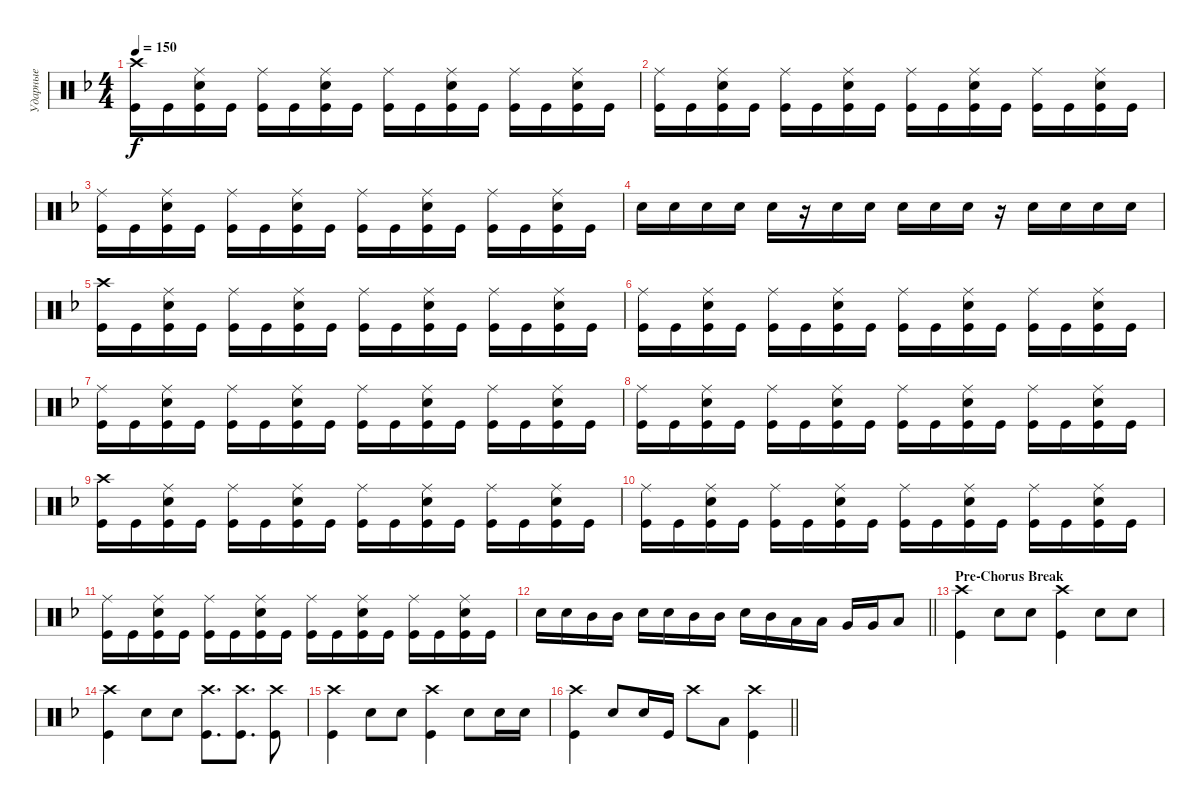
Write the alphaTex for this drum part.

\track ("Ударные" "Ударные") {instrument percussion}
\staff {score}
\articulation defaults
\ts (4 4)
\tempo 150
\clef neutral
\ks dminor
("Kick (hit)" "Crash high (hit)").16{dy f} "Kick (hit)".16 ("Kick (hit)" "Snare (hit) 2" "Ride (middle)").16 "Kick (hit)".16 ("Kick (hit)" "Ride (middle)").16 "Kick (hit)".16 ("Kick (hit)" "Snare (hit) 2" "Ride (middle)").16 "Kick (hit)".16 ("Kick (hit)" "Ride (middle)").16 "Kick (hit)".16 ("Snare (hit) 2" "Kick (hit)" "Ride (middle)").16 "Kick (hit)".16 ("Kick (hit)" "Ride (middle)").16 "Kick (hit)".16 ("Kick (hit)" "Snare (hit) 2" "Ride (middle)").16 "Kick (hit)".16 |
("Kick (hit)" "Ride (middle)").16 "Kick (hit)".16 ("Kick (hit)" "Snare (hit) 2" "Ride (middle)").16 "Kick (hit)".16 ("Kick (hit)" "Ride (middle)").16 "Kick (hit)".16 ("Kick (hit)" "Snare (hit) 2" "Ride (middle)").16 "Kick (hit)".16 ("Kick (hit)" "Ride (middle)").16 "Kick (hit)".16 ("Snare (hit) 2" "Kick (hit)" "Ride (middle)").16 "Kick (hit)".16 ("Kick (hit)" "Ride (middle)").16 "Kick (hit)".16 ("Kick (hit)" "Snare (hit) 2" "Ride (middle)").16 "Kick (hit)".16 |
("Kick (hit)" "Ride (middle)").16 "Kick (hit)".16 ("Kick (hit)" "Snare (hit) 2" "Ride (middle)").16 "Kick (hit)".16 ("Kick (hit)" "Ride (middle)").16 "Kick (hit)".16 ("Kick (hit)" "Snare (hit) 2" "Ride (middle)").16 "Kick (hit)".16 ("Kick (hit)" "Ride (middle)").16 "Kick (hit)".16 ("Snare (hit) 2" "Kick (hit)" "Ride (middle)").16 "Kick (hit)".16 ("Kick (hit)" "Ride (middle)").16 "Kick (hit)".16 ("Kick (hit)" "Snare (hit) 2" "Ride (middle)").16 "Kick (hit)".16 |
"Snare (hit) 2".16 "Snare (hit) 2".16 "Snare (hit) 2".16 "Snare (hit) 2".16 "Snare (hit) 2".16 r.16 "Snare (hit) 2".16 "Snare (hit) 2".16 "Snare (hit) 2".16 "Snare (hit) 2".16 "Snare (hit) 2".16 r.16 "Snare (hit) 2".16 "Snare (hit) 2".16 "Snare (hit) 2".16 "Snare (hit) 2".16 |
("Kick (hit)" "Crash high (hit)").16 "Kick (hit)".16 ("Kick (hit)" "Snare (hit) 2" "Ride (middle)").16 "Kick (hit)".16 ("Kick (hit)" "Ride (middle)").16 "Kick (hit)".16 ("Kick (hit)" "Snare (hit) 2" "Ride (middle)").16 "Kick (hit)".16 ("Kick (hit)" "Ride (middle)").16 "Kick (hit)".16 ("Snare (hit) 2" "Kick (hit)" "Ride (middle)").16 "Kick (hit)".16 ("Kick (hit)" "Ride (middle)").16 "Kick (hit)".16 ("Kick (hit)" "Snare (hit) 2" "Ride (middle)").16 "Kick (hit)".16 |
("Kick (hit)" "Ride (middle)").16 "Kick (hit)".16 ("Kick (hit)" "Snare (hit) 2" "Ride (middle)").16 "Kick (hit)".16 ("Kick (hit)" "Ride (middle)").16 "Kick (hit)".16 ("Kick (hit)" "Snare (hit) 2" "Ride (middle)").16 "Kick (hit)".16 ("Kick (hit)" "Ride (middle)").16 "Kick (hit)".16 ("Snare (hit) 2" "Kick (hit)" "Ride (middle)").16 "Kick (hit)".16 ("Kick (hit)" "Ride (middle)").16 "Kick (hit)".16 ("Kick (hit)" "Snare (hit) 2" "Ride (middle)").16 "Kick (hit)".16 |
("Kick (hit)" "Ride (middle)").16 "Kick (hit)".16 ("Kick (hit)" "Snare (hit) 2" "Ride (middle)").16 "Kick (hit)".16 ("Kick (hit)" "Ride (middle)").16 "Kick (hit)".16 ("Kick (hit)" "Snare (hit) 2" "Ride (middle)").16 "Kick (hit)".16 ("Kick (hit)" "Ride (middle)").16 "Kick (hit)".16 ("Snare (hit) 2" "Kick (hit)" "Ride (middle)").16 "Kick (hit)".16 ("Kick (hit)" "Ride (middle)").16 "Kick (hit)".16 ("Kick (hit)" "Snare (hit) 2" "Ride (middle)").16 "Kick (hit)".16 |
("Kick (hit)" "Ride (middle)").16 "Kick (hit)".16 ("Kick (hit)" "Snare (hit) 2" "Ride (middle)").16 "Kick (hit)".16 ("Kick (hit)" "Ride (middle)").16 "Kick (hit)".16 ("Kick (hit)" "Snare (hit) 2" "Ride (middle)").16 "Kick (hit)".16 ("Kick (hit)" "Ride (middle)").16 "Kick (hit)".16 ("Snare (hit) 2" "Kick (hit)" "Ride (middle)").16 "Kick (hit)".16 ("Kick (hit)" "Ride (middle)").16 "Kick (hit)".16 ("Kick (hit)" "Snare (hit) 2" "Ride (middle)").16 "Kick (hit)".16 |
("Kick (hit)" "Crash high (hit)").16 "Kick (hit)".16 ("Kick (hit)" "Snare (hit) 2" "Ride (middle)").16 "Kick (hit)".16 ("Kick (hit)" "Ride (middle)").16 "Kick (hit)".16 ("Kick (hit)" "Snare (hit) 2" "Ride (middle)").16 "Kick (hit)".16 ("Kick (hit)" "Ride (middle)").16 "Kick (hit)".16 ("Snare (hit) 2" "Kick (hit)" "Ride (middle)").16 "Kick (hit)".16 ("Kick (hit)" "Ride (middle)").16 "Kick (hit)".16 ("Kick (hit)" "Snare (hit) 2" "Ride (middle)").16 "Kick (hit)".16 |
("Kick (hit)" "Ride (middle)").16 "Kick (hit)".16 ("Kick (hit)" "Snare (hit) 2" "Ride (middle)").16 "Kick (hit)".16 ("Kick (hit)" "Ride (middle)").16 "Kick (hit)".16 ("Kick (hit)" "Snare (hit) 2" "Ride (middle)").16 "Kick (hit)".16 ("Kick (hit)" "Ride (middle)").16 "Kick (hit)".16 ("Snare (hit) 2" "Kick (hit)" "Ride (middle)").16 "Kick (hit)".16 ("Kick (hit)" "Ride (middle)").16 "Kick (hit)".16 ("Kick (hit)" "Snare (hit) 2" "Ride (middle)").16 "Kick (hit)".16 |
("Kick (hit)" "Ride (middle)").16 "Kick (hit)".16 ("Kick (hit)" "Snare (hit) 2" "Ride (middle)").16 "Kick (hit)".16 ("Kick (hit)" "Ride (middle)").16 "Kick (hit)".16 ("Kick (hit)" "Snare (hit) 2" "Ride (middle)").16 "Kick (hit)".16 ("Kick (hit)" "Ride (middle)").16 "Kick (hit)".16 ("Snare (hit) 2" "Kick (hit)" "Ride (middle)").16 "Kick (hit)".16 ("Kick (hit)" "Ride (middle)").16 "Kick (hit)".16 ("Kick (hit)" "Snare (hit) 2" "Ride (middle)").16 "Kick (hit)".16 |
\barLineRight lightlight "Snare (hit) 2".16 "Snare (hit) 2".16 "Mid Tom (hit)".16 "Mid Tom (hit)".16 "Snare (hit) 2".16 "Snare (hit) 2".16 "Mid Tom (hit)".16 "Mid Tom (hit)".16 "Snare (hit) 2".16 "Mid Tom (hit)".16 "Low Tom (hit)".16 "Low Tom (hit)".16 "Very Low Tom (hit)".16 "Very Low Tom (hit)".16 "Low Floor Tom (hit)".8
|
\section ("" "Pre-Chorus Break")
("Kick (hit)" "Crash high (hit)").4 "Snare (hit) 2".8 "Snare (hit) 2".8 ("Kick (hit)" "Crash high (hit)").4 "Snare (hit) 2".8 "Snare (hit) 2".8 |
("Kick (hit)" "Crash high (hit)").4 "Snare (hit) 2".8 "Snare (hit) 2".8 ("Kick (hit)" "Crash high (hit)").8{d} ("Kick (hit)" "Crash high (hit)").8{d} ("Kick (hit)" "Crash high (hit)").8 |
("Kick (hit)" "Crash high (hit)").4 "Snare (hit) 2".8 "Snare (hit) 2".8 ("Kick (hit)" "Crash high (hit)").4 "Snare (hit) 2".8 "Snare (hit) 2".16 "Snare (hit) 2".16 |
\barLineRight lightlight
("Kick (hit)" "Crash high (hit)").4 "Snare (hit) 2".8 "Snare (hit) 2".16 "Kick (hit)".16 "Crash high (hit)".8 "Low Floor Tom (hit)".8 ("Kick (hit)" "Crash high (hit)").4
